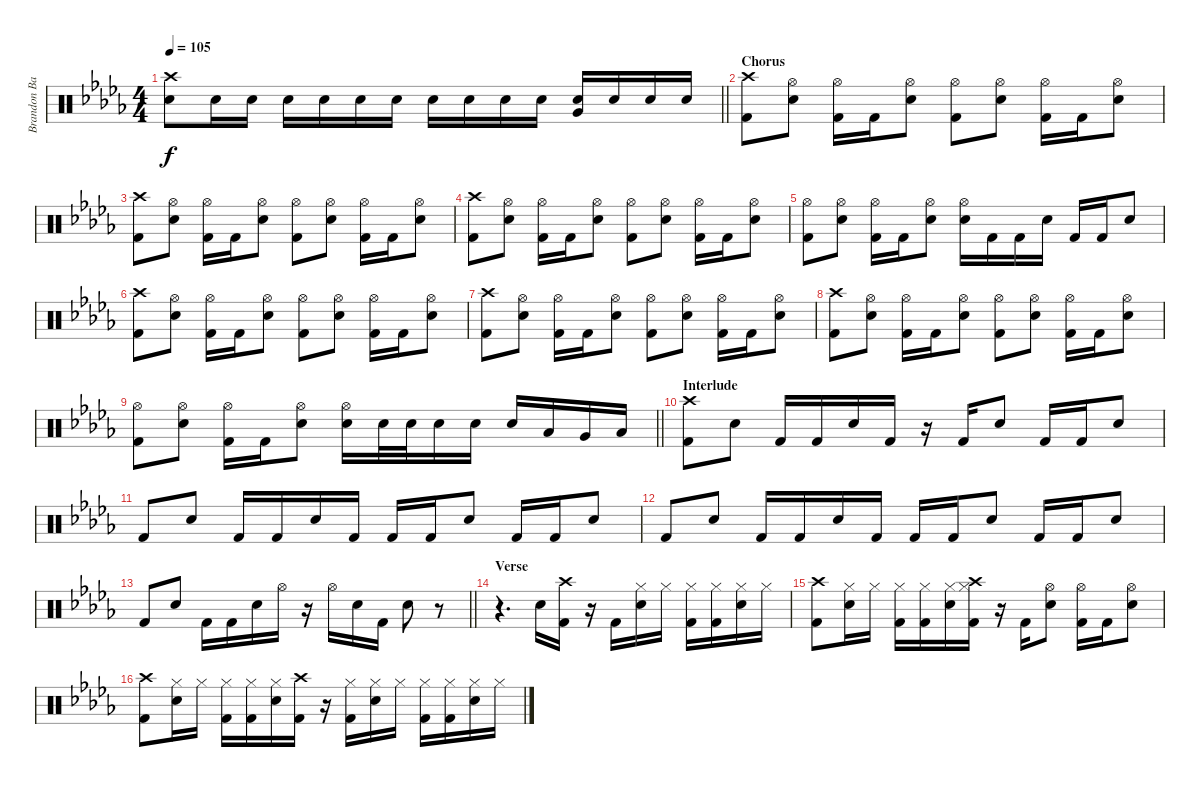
\track ("Brandon Barnes - Drums" "Brandon Ba") {instrument percussion}
\staff {score}
\articulation defaults
\ts (4 4)
\tempo 105
\clef neutral
\barLineRight lightlight
\ks db
("Snare (hit) 2" "Crash high (hit)").8{dy f} "Snare (hit) 2".16 "Snare (hit) 2".16 "Snare (hit) 2".16 "Snare (hit) 2".16 "Snare (hit) 2".16 "Snare (hit) 2".16 "Snare (hit) 2".16 "Snare (hit) 2".16 "Snare (hit) 2".16 "Snare (hit) 2".16 ("Snare (hit) 2" "Very Low Tom (hit)").16 "Snare (hit) 2".16 "Snare (hit) 2".16 "Snare (hit) 2".16 |
\section ("" "Chorus")
("Crash high (hit)" "Kick (hit) 2").8 ("Snare (hit) 2" "Hi-Hat (open)").8 ("Kick (hit) 2" "Hi-Hat (open)").16 "Kick (hit) 2".16 ("Snare (hit) 2" "Hi-Hat (open)").8 ("Hi-Hat (open)" "Kick (hit) 2").8 ("Snare (hit) 2" "Hi-Hat (open)").8 ("Kick (hit) 2" "Hi-Hat (open)").16 "Kick (hit) 2".16 ("Snare (hit) 2" "Hi-Hat (open)").8 |
("Crash high (hit)" "Kick (hit) 2").8 ("Snare (hit) 2" "Hi-Hat (open)").8 ("Kick (hit) 2" "Hi-Hat (open)").16 "Kick (hit) 2".16 ("Snare (hit) 2" "Hi-Hat (open)").8 ("Hi-Hat (open)" "Kick (hit) 2").8 ("Snare (hit) 2" "Hi-Hat (open)").8 ("Kick (hit) 2" "Hi-Hat (open)").16 "Kick (hit) 2".16 ("Snare (hit) 2" "Hi-Hat (open)").8 |
("Crash high (hit)" "Kick (hit) 2").8 ("Snare (hit) 2" "Hi-Hat (open)").8 ("Kick (hit) 2" "Hi-Hat (open)").16 "Kick (hit) 2".16 ("Snare (hit) 2" "Hi-Hat (open)").8 ("Hi-Hat (open)" "Kick (hit) 2").8 ("Snare (hit) 2" "Hi-Hat (open)").8 ("Kick (hit) 2" "Hi-Hat (open)").16 "Kick (hit) 2".16 ("Snare (hit) 2" "Hi-Hat (open)").8 |
("Hi-Hat (open)" "Kick (hit) 2").8 ("Snare (hit) 2" "Hi-Hat (open)").8 ("Kick (hit) 2" "Hi-Hat (open)").16 "Kick (hit) 2".16 ("Snare (hit) 2" "Hi-Hat (open)").8 ("Snare (hit) 2" "Hi-Hat (open)").16 "Kick (hit) 2".16 "Kick (hit) 2".16 "Snare (hit) 2".16 "Kick (hit) 2".16 "Kick (hit) 2".16 "Snare (hit) 2".8 |
("Crash high (hit)" "Kick (hit) 2").8 ("Snare (hit) 2" "Hi-Hat (open)").8 ("Kick (hit) 2" "Hi-Hat (open)").16 "Kick (hit) 2".16 ("Snare (hit) 2" "Hi-Hat (open)").8 ("Hi-Hat (open)" "Kick (hit) 2").8 ("Snare (hit) 2" "Hi-Hat (open)").8 ("Kick (hit) 2" "Hi-Hat (open)").16 "Kick (hit) 2".16 ("Snare (hit) 2" "Hi-Hat (open)").8 |
("Crash high (hit)" "Kick (hit) 2").8 ("Snare (hit) 2" "Hi-Hat (open)").8 ("Kick (hit) 2" "Hi-Hat (open)").16 "Kick (hit) 2".16 ("Snare (hit) 2" "Hi-Hat (open)").8 ("Hi-Hat (open)" "Kick (hit) 2").8 ("Snare (hit) 2" "Hi-Hat (open)").8 ("Kick (hit) 2" "Hi-Hat (open)").16 "Kick (hit) 2".16 ("Snare (hit) 2" "Hi-Hat (open)").8 |
("Crash high (hit)" "Kick (hit) 2").8 ("Snare (hit) 2" "Hi-Hat (open)").8 ("Kick (hit) 2" "Hi-Hat (open)").16 "Kick (hit) 2".16 ("Snare (hit) 2" "Hi-Hat (open)").8 ("Hi-Hat (open)" "Kick (hit) 2").8 ("Snare (hit) 2" "Hi-Hat (open)").8 ("Kick (hit) 2" "Hi-Hat (open)").16 "Kick (hit) 2".16 ("Snare (hit) 2" "Hi-Hat (open)").8 |
\barLineRight lightlight
("Hi-Hat (open)" "Kick (hit) 2").8 ("Snare (hit) 2" "Hi-Hat (open)").8 ("Kick (hit) 2" "Hi-Hat (open)").16 "Kick (hit) 2".16 ("Snare (hit) 2" "Hi-Hat (open)").8 ("Snare (hit) 2" "Hi-Hat (open)").16 "Snare (hit) 2".32 "Snare (hit) 2".32 "Snare (hit) 2".16 "Snare (hit) 2".16 "Snare (hit) 2".16 "Low Tom (hit)".16 "Very Low Tom (hit)".16 "Low Floor Tom (hit)".16 |
\section ("" "Interlude")
("Crash high (hit)" "Kick (hit) 2").8 "Snare (hit) 2".8 "Kick (hit) 2".16 "Kick (hit) 2".16 "Snare (hit) 2".16 "Kick (hit) 2".16 r.16 "Kick (hit) 2".16 "Snare (hit) 2".8 "Kick (hit) 2".16 "Kick (hit) 2".16 "Snare (hit) 2".8 |
"Kick (hit) 2".8 "Snare (hit) 2".8 "Kick (hit) 2".16 "Kick (hit) 2".16 "Snare (hit) 2".16 "Kick (hit) 2".16 "Kick (hit) 2".16 "Kick (hit) 2".16 "Snare (hit) 2".8 "Kick (hit) 2".16 "Kick (hit) 2".16 "Snare (hit) 2".8 |
"Kick (hit) 2".8 "Snare (hit) 2".8 "Kick (hit) 2".16 "Kick (hit) 2".16 "Snare (hit) 2".16 "Kick (hit) 2".16 "Kick (hit) 2".16 "Kick (hit) 2".16 "Snare (hit) 2".8 "Kick (hit) 2".16 "Kick (hit) 2".16 "Snare (hit) 2".8 |
\barLineRight lightlight "Kick (hit) 2".8 "Snare (hit) 2".8 "Kick (hit) 2".16 "Kick (hit) 2".16 "Snare (hit) 2".16 "Hi-Hat (open)".16
r.16 "Hi-Hat (open)".16 "Snare (hit) 2".16 "Kick (hit) 2".16 "Snare (hit) 2".8 r.8 |
\section ("" "Verse")
r.4{d} "Snare (hit) 2".16 ("Kick (hit) 2" "Crash high (hit)").16 r.16 "Kick (hit) 2".16 ("Snare (hit) 2" "Hi-Hat (closed)").16 "Hi-Hat (closed)".16 ("Hi-Hat (closed)" "Kick (hit) 2").16 ("Hi-Hat (closed)" "Kick (hit) 2").16 ("Hi-Hat (closed)" "Snare (hit) 2").16 "Hi-Hat (closed)".16 |
("Crash high (hit)" "Kick (hit) 2").8 ("Snare (hit) 2" "Hi-Hat (closed)").16 "Hi-Hat (closed)".16 ("Kick (hit) 2" "Hi-Hat (closed)").16 ("Kick (hit) 2" "Hi-Hat (closed)").16 ("Snare (hit) 2" "Hi-Hat (closed)").16 ("Hi-Hat (closed)" "Kick (hit) 2" "Crash high (hit)").16 r.16 "Kick (hit) 2".16 ("Snare (hit) 2" "Hi-Hat (open)").8 ("Hi-Hat (open)" "Kick (hit) 2").16 "Kick (hit) 2".16 ("Snare (hit) 2" "Hi-Hat (open)").8 |
("Crash high (hit)" "Kick (hit) 2").8 ("Snare (hit) 2" "Hi-Hat (closed)").16 "Hi-Hat (closed)".16 ("Kick (hit) 2" "Hi-Hat (closed)").16 ("Kick (hit) 2" "Hi-Hat (closed)").16 ("Snare (hit) 2" "Hi-Hat (closed)").16 ("Kick (hit) 2" "Crash high (hit)").16 r.16 ("Kick (hit) 2" "Hi-Hat (closed)").16 ("Snare (hit) 2" "Hi-Hat (closed)").16 "Hi-Hat (closed)".16 ("Hi-Hat (closed)" "Kick (hit) 2").16 ("Kick (hit) 2" "Hi-Hat (closed)").16 ("Snare (hit) 2" "Hi-Hat (closed)").16 "Hi-Hat (closed)".16
